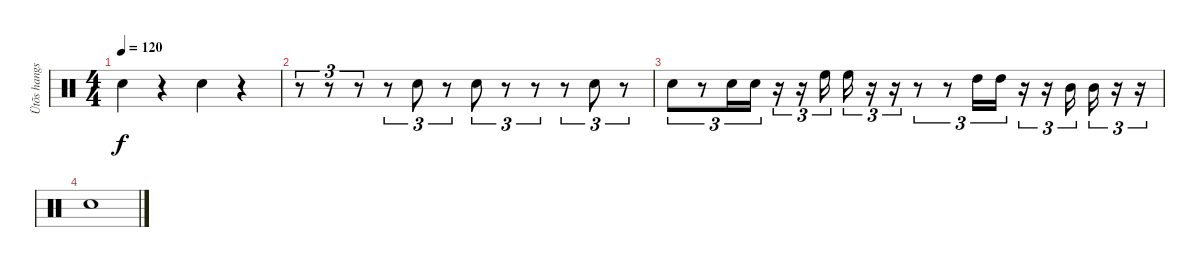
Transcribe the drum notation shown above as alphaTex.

\track ("Ütõs hangszer" "Ütõs hangs") {instrument percussion}
\staff {score}
\articulation defaults
\ts (4 4)
\tempo 120
\clef neutral
\ks c "Electric Snare (hit)".4{dy f}
r.4 "Electric Snare (hit)".4 r.4 |
r.8{tu (3 2)} r.8{tu (3 2)} r.8{tu (3 2)} r.8{tu (3 2)} "Electric Snare (hit)".8{tu (3 2)} r.8{tu (3 2)} "Electric Snare (hit)".8{tu (3 2)} r.8{tu (3 2)} r.8{tu (3 2)} r.8{tu (3 2)} "Electric Snare (hit)".8{tu (3 2)} r.8{tu (3 2)} |
"Electric Snare (hit)".8{tu (3 2)} r.8{tu (3 2)} "Electric Snare (hit)".16{tu (3 2)} "Electric Snare (hit)".16{tu (3 2)} r.16{tu (3 2)} r.16{tu (3 2)} "High Floor Tom (hit)".16{tu (3 2)} "High Floor Tom (hit)".16{tu (3 2)} r.16{tu (3 2)} r.16{tu (3 2)} r.8{tu (3 2)} r.8{tu (3 2)} "High Tom (hit)".16{tu (3 2)} "High Tom (hit)".16{tu (3 2)} r.16{tu (3 2)} r.16{tu (3 2)} "Mid Tom (hit)".16{tu (3 2)} "Mid Tom (hit)".16{tu (3 2)} r.16{tu (3 2)} r.16{tu (3 2)} |
"Electric Snare (hit)".1
